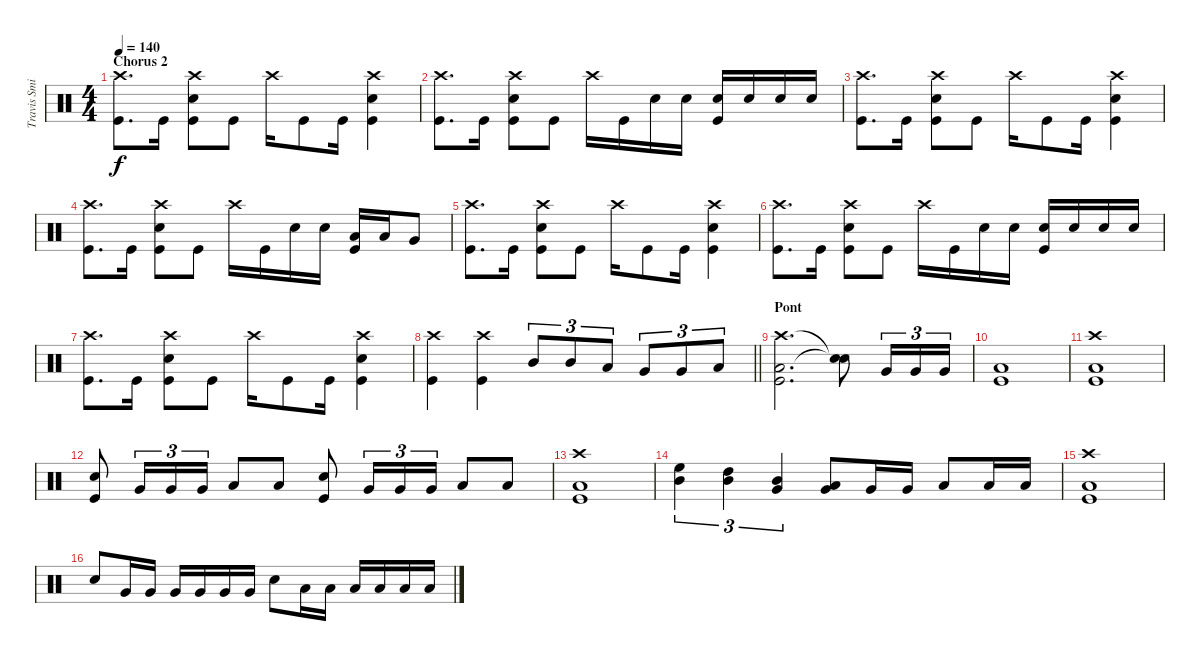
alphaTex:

\track ("Travis Smith" "Travis Smi") {instrument percussion}
\staff {score}
\articulation defaults
\ts (4 4)
\section ("" "Chorus 2")
\tempo 140
\clef neutral
\ks c
("Crash high (hit)" "Kick (hit)").8{d dy f} "Kick (hit)".16 ("Crash high (hit)" "Snare (hit) 2" "Kick (hit)").8 "Kick (hit)".8 "Crash high (hit)".16 "Kick (hit)".8 "Kick (hit)".16 ("Crash high (hit)" "Snare (hit) 2" "Kick (hit)").4 |
("Crash high (hit)" "Kick (hit)").8{d} "Kick (hit)".16 ("Crash high (hit)" "Snare (hit) 2" "Kick (hit)").8 "Kick (hit)".8 "Crash high (hit)".16 "Kick (hit)".16 "Snare (hit) 2".16 "Snare (hit) 2".16 ("Snare (hit) 2" "Kick (hit)").16 "Snare (hit) 2".16 "Snare (hit) 2".16 "Snare (hit) 2".16 |
("Crash high (hit)" "Kick (hit)").8{d} "Kick (hit)".16 ("Crash high (hit)" "Snare (hit) 2" "Kick (hit)").8 "Kick (hit)".8 "Crash high (hit)".16 "Kick (hit)".8 "Kick (hit)".16 ("Crash high (hit)" "Snare (hit) 2" "Kick (hit)").4 |
("Crash high (hit)" "Kick (hit)").8{d} "Kick (hit)".16 ("Crash high (hit)" "Snare (hit) 2" "Kick (hit)").8 "Kick (hit)".8 "Crash high (hit)".16 "Kick (hit)".16 "Snare (hit) 2".16 "Snare (hit) 2".16 ("Low Tom (hit)" "Kick (hit)").16 "Low Tom (hit)".16 "Very Low Tom (hit)".8 |
("Crash high (hit)" "Kick (hit)").8{d} "Kick (hit)".16 ("Crash high (hit)" "Snare (hit) 2" "Kick (hit)").8 "Kick (hit)".8 "Crash high (hit)".16 "Kick (hit)".8 "Kick (hit)".16 ("Crash high (hit)" "Snare (hit) 2" "Kick (hit)").4 |
("Crash high (hit)" "Kick (hit)").8{d} "Kick (hit)".16 ("Crash high (hit)" "Snare (hit) 2" "Kick (hit)").8 "Kick (hit)".8 "Crash high (hit)".16 "Kick (hit)".16 "Snare (hit) 2".16 "Snare (hit) 2".16 ("Snare (hit) 2" "Kick (hit)").16 "Snare (hit) 2".16 "Snare (hit) 2".16 "Snare (hit) 2".16 |
("Crash high (hit)" "Kick (hit)").8{d} "Kick (hit)".16 ("Crash high (hit)" "Snare (hit) 2" "Kick (hit)").8 "Kick (hit)".8 "Crash high (hit)".16 "Kick (hit)".8 "Kick (hit)".16 ("Crash high (hit)" "Snare (hit) 2" "Kick (hit)").4 |
\barLineRight lightlight
("Crash high (hit)" "Kick (hit)").4 ("Crash high (hit)" "Kick (hit)").4 "Mid Tom (hit)".8{tu (3 2)} "Mid Tom (hit)".8{tu (3 2)} "Low Tom (hit)".8{tu (3 2)} "Very Low Tom (hit)".8{tu (3 2)} "Very Low Tom (hit)".8{tu (3 2)} "Low Floor Tom (hit)".8{tu (3 2)} |
\section ("" "Pont")
("Crash high (hit)" "Low Floor Tom (hit)" "Kick (hit)").2{d} ("Snare (hit)"{t} "Snare (hit)"{t}).8 "Very Low Tom (hit)".16{tu (3 2)} "Very Low Tom (hit)".16{tu (3 2)} "Very Low Tom (hit)".16{tu (3 2)} |
("Low Floor Tom (hit)" "Kick (hit)").1 |
("Crash high (hit)" "Low Floor Tom (hit)" "Kick (hit)").1 |
("Snare (hit) 2" "Kick (hit)").8 "Very Low Tom (hit)".16{tu (3 2)} "Very Low Tom (hit)".16{tu (3 2)} "Very Low Tom (hit)".16{tu (3 2)} "Low Floor Tom (hit)".8 "Low Floor Tom (hit)".8 ("Snare (hit) 2" "Kick (hit)").8 "Very Low Tom (hit)".16{tu (3 2)} "Very Low Tom (hit)".16{tu (3 2)} "Very Low Tom (hit)".16{tu (3 2)} "Low Floor Tom (hit)".8 "Low Floor Tom (hit)".8 |
("Crash high (hit)" "Low Floor Tom (hit)" "Kick (hit)").1 |
("High Floor Tom (hit)" "Mid Tom (hit)").4{tu (3 2)} ("High Tom (hit)" "Mid Tom (hit)").4{tu (3 2)} ("Mid Tom (hit)" "Very Low Tom (hit)").4{tu (3 2)} ("Low Tom (hit)" "Very Low Tom (hit)").8 "Very Low Tom (hit)".16 "Very Low Tom (hit)".16 "Low Floor Tom (hit)".8 "Low Floor Tom (hit)".16 "Low Floor Tom (hit)".16 |
("Crash high (hit)" "Low Floor Tom (hit)" "Kick (hit)").1 |
"Snare (hit) 2".8 "Very Low Tom (hit)".16 "Very Low Tom (hit)".16 "Very Low Tom (hit)".16 "Very Low Tom (hit)".16 "Very Low Tom (hit)".16 "Very Low Tom (hit)".16 "Snare (hit) 2".8 "Low Floor Tom (hit)".16 "Low Floor Tom (hit)".16 "Low Floor Tom (hit)".16 "Low Floor Tom (hit)".16 "Low Floor Tom (hit)".16 "Low Floor Tom (hit)".16
